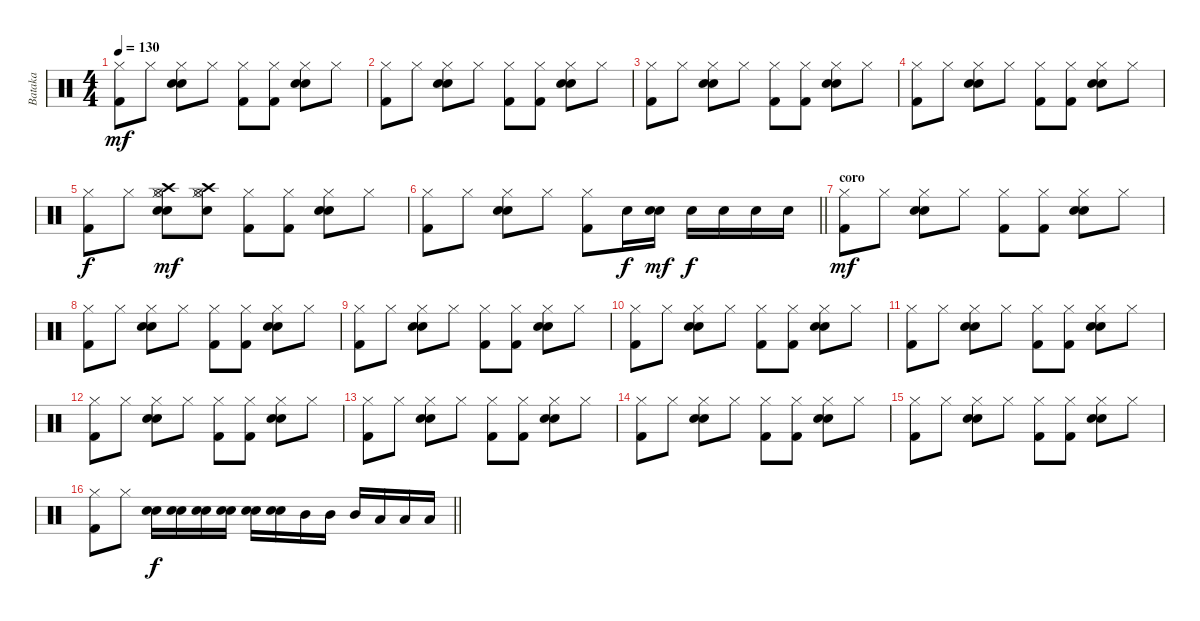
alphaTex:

\track ("Bataka" "Bataka") {instrument percussion}
\staff
\articulation defaults
\ts (4 4)
\tempo 130
\clef neutral
\ks c
("Hi-Hat (closed)" "Kick (hit) 2").8{dy mf} "Hi-Hat (closed)".8 ("Hi-Hat (closed)" "Electric Snare (hit)" "Snare (hit) 2").8 "Hi-Hat (closed)".8 ("Hi-Hat (closed)" "Kick (hit) 2").8 ("Hi-Hat (closed)" "Kick (hit) 2").8 ("Hi-Hat (closed)" "Electric Snare (hit)" "Snare (hit) 2").8 "Hi-Hat (closed)".8 |
("Hi-Hat (closed)" "Kick (hit) 2").8 "Hi-Hat (closed)".8 ("Hi-Hat (closed)" "Electric Snare (hit)" "Snare (hit) 2").8 "Hi-Hat (closed)".8 ("Hi-Hat (closed)" "Kick (hit) 2").8 ("Hi-Hat (closed)" "Kick (hit) 2").8 ("Hi-Hat (closed)" "Electric Snare (hit)" "Snare (hit) 2").8 "Hi-Hat (closed)".8 |
("Hi-Hat (closed)" "Kick (hit) 2").8 "Hi-Hat (closed)".8 ("Hi-Hat (closed)" "Electric Snare (hit)" "Snare (hit) 2").8 "Hi-Hat (closed)".8 ("Hi-Hat (closed)" "Kick (hit) 2").8 ("Hi-Hat (closed)" "Kick (hit) 2").8 ("Hi-Hat (closed)" "Electric Snare (hit)" "Snare (hit) 2").8 "Hi-Hat (closed)".8 |
("Hi-Hat (closed)" "Kick (hit) 2").8 "Hi-Hat (closed)".8 ("Hi-Hat (closed)" "Electric Snare (hit)" "Snare (hit) 2").8 "Hi-Hat (closed)".8 ("Hi-Hat (closed)" "Kick (hit) 2").8 ("Hi-Hat (closed)" "Kick (hit) 2").8 ("Hi-Hat (closed)" "Electric Snare (hit)" "Snare (hit) 2").8 "Hi-Hat (closed)".8 |
("Hi-Hat (closed)" "Kick (hit) 2").8{dy f} "Hi-Hat (closed)".8 ("Hi-Hat (closed)" "Hi-Hat (open)" "Electric Snare (hit)" "Snare (hit) 2" "Crash high (hit)").8{dy mf} ("Hi-Hat (closed)" "Hi-Hat (open)" "Electric Snare (hit)" "Crash high (hit)").8 ("Hi-Hat (closed)" "Kick (hit) 2").8 ("Hi-Hat (closed)" "Kick (hit) 2").8 ("Hi-Hat (closed)" "Electric Snare (hit)" "Snare (hit) 2").8 "Hi-Hat (closed)".8 |
\barLineRight lightlight
("Hi-Hat (closed)" "Kick (hit) 2").8 "Hi-Hat (closed)".8 ("Hi-Hat (closed)" "Electric Snare (hit)" "Snare (hit) 2").8 "Hi-Hat (closed)".8 ("Hi-Hat (closed)" "Kick (hit) 2").8 "Electric Snare (hit)".16{dy f} ("Electric Snare (hit)" "Snare (hit) 2").16{dy mf} "Electric Snare (hit)".16{dy f} "Electric Snare (hit)".16 "Electric Snare (hit)".16 "Electric Snare (hit)".16 |
\section ("" "coro")
("Hi-Hat (closed)" "Kick (hit) 2").8{dy mf} "Hi-Hat (closed)".8 ("Hi-Hat (closed)" "Electric Snare (hit)" "Snare (hit) 2").8 "Hi-Hat (closed)".8 ("Hi-Hat (closed)" "Kick (hit) 2").8 ("Hi-Hat (closed)" "Kick (hit) 2").8 ("Hi-Hat (closed)" "Electric Snare (hit)" "Snare (hit) 2").8 "Hi-Hat (closed)".8 |
("Hi-Hat (closed)" "Kick (hit) 2").8 "Hi-Hat (closed)".8 ("Hi-Hat (closed)" "Electric Snare (hit)" "Snare (hit) 2").8 "Hi-Hat (closed)".8 ("Hi-Hat (closed)" "Kick (hit) 2").8 ("Hi-Hat (closed)" "Kick (hit) 2").8 ("Hi-Hat (closed)" "Electric Snare (hit)" "Snare (hit) 2").8 "Hi-Hat (closed)".8 |
("Hi-Hat (closed)" "Kick (hit) 2").8 "Hi-Hat (closed)".8 ("Hi-Hat (closed)" "Electric Snare (hit)" "Snare (hit) 2").8 "Hi-Hat (closed)".8 ("Hi-Hat (closed)" "Kick (hit) 2").8 ("Hi-Hat (closed)" "Kick (hit) 2").8 ("Hi-Hat (closed)" "Electric Snare (hit)" "Snare (hit) 2").8 "Hi-Hat (closed)".8 |
("Hi-Hat (closed)" "Kick (hit) 2").8 "Hi-Hat (closed)".8 ("Hi-Hat (closed)" "Electric Snare (hit)" "Snare (hit) 2").8 "Hi-Hat (closed)".8 ("Hi-Hat (closed)" "Kick (hit) 2").8 ("Hi-Hat (closed)" "Kick (hit) 2").8 ("Hi-Hat (closed)" "Electric Snare (hit)" "Snare (hit) 2").8 "Hi-Hat (closed)".8 |
("Hi-Hat (closed)" "Kick (hit) 2").8 "Hi-Hat (closed)".8 ("Hi-Hat (closed)" "Electric Snare (hit)" "Snare (hit) 2").8 "Hi-Hat (closed)".8 ("Hi-Hat (closed)" "Kick (hit) 2").8 ("Hi-Hat (closed)" "Kick (hit) 2").8 ("Hi-Hat (closed)" "Electric Snare (hit)" "Snare (hit) 2").8 "Hi-Hat (closed)".8 |
("Hi-Hat (closed)" "Kick (hit) 2").8 "Hi-Hat (closed)".8 ("Hi-Hat (closed)" "Electric Snare (hit)" "Snare (hit) 2").8 "Hi-Hat (closed)".8 ("Hi-Hat (closed)" "Kick (hit) 2").8 ("Hi-Hat (closed)" "Kick (hit) 2").8 ("Hi-Hat (closed)" "Electric Snare (hit)" "Snare (hit) 2").8 "Hi-Hat (closed)".8 |
("Hi-Hat (closed)" "Kick (hit) 2").8 "Hi-Hat (closed)".8 ("Hi-Hat (closed)" "Electric Snare (hit)" "Snare (hit) 2").8 "Hi-Hat (closed)".8 ("Hi-Hat (closed)" "Kick (hit) 2").8 ("Hi-Hat (closed)" "Kick (hit) 2").8 ("Hi-Hat (closed)" "Electric Snare (hit)" "Snare (hit) 2").8 "Hi-Hat (closed)".8 |
("Hi-Hat (closed)" "Kick (hit) 2").8 "Hi-Hat (closed)".8 ("Hi-Hat (closed)" "Electric Snare (hit)" "Snare (hit) 2").8 "Hi-Hat (closed)".8 ("Hi-Hat (closed)" "Kick (hit) 2").8 ("Hi-Hat (closed)" "Kick (hit) 2").8 ("Hi-Hat (closed)" "Electric Snare (hit)" "Snare (hit) 2").8 "Hi-Hat (closed)".8 |
("Hi-Hat (closed)" "Kick (hit) 2").8 "Hi-Hat (closed)".8 ("Hi-Hat (closed)" "Electric Snare (hit)" "Snare (hit) 2").8 "Hi-Hat (closed)".8 ("Hi-Hat (closed)" "Kick (hit) 2").8 ("Hi-Hat (closed)" "Kick (hit) 2").8 ("Hi-Hat (closed)" "Electric Snare (hit)" "Snare (hit) 2").8 "Hi-Hat (closed)".8 |
\barLineRight lightlight
("Hi-Hat (closed)" "Kick (hit) 2").8 "Hi-Hat (closed)".8 ("Electric Snare (hit)" "Snare (hit) 2").16{dy f volume 11} ("Electric Snare (hit)" "Snare (hit) 2").16 ("Electric Snare (hit)" "Snare (hit) 2").16 ("Electric Snare (hit)" "Snare (hit) 2").16 ("Electric Snare (hit)" "Snare (hit) 2").16 ("Electric Snare (hit)" "Snare (hit) 2").16 "Mid Tom (hit)".16 "Mid Tom (hit)".16 "Mid Tom (hit)".16 "Low Tom (hit)".16 "Low Tom (hit)".16 "Low Tom (hit)".16
